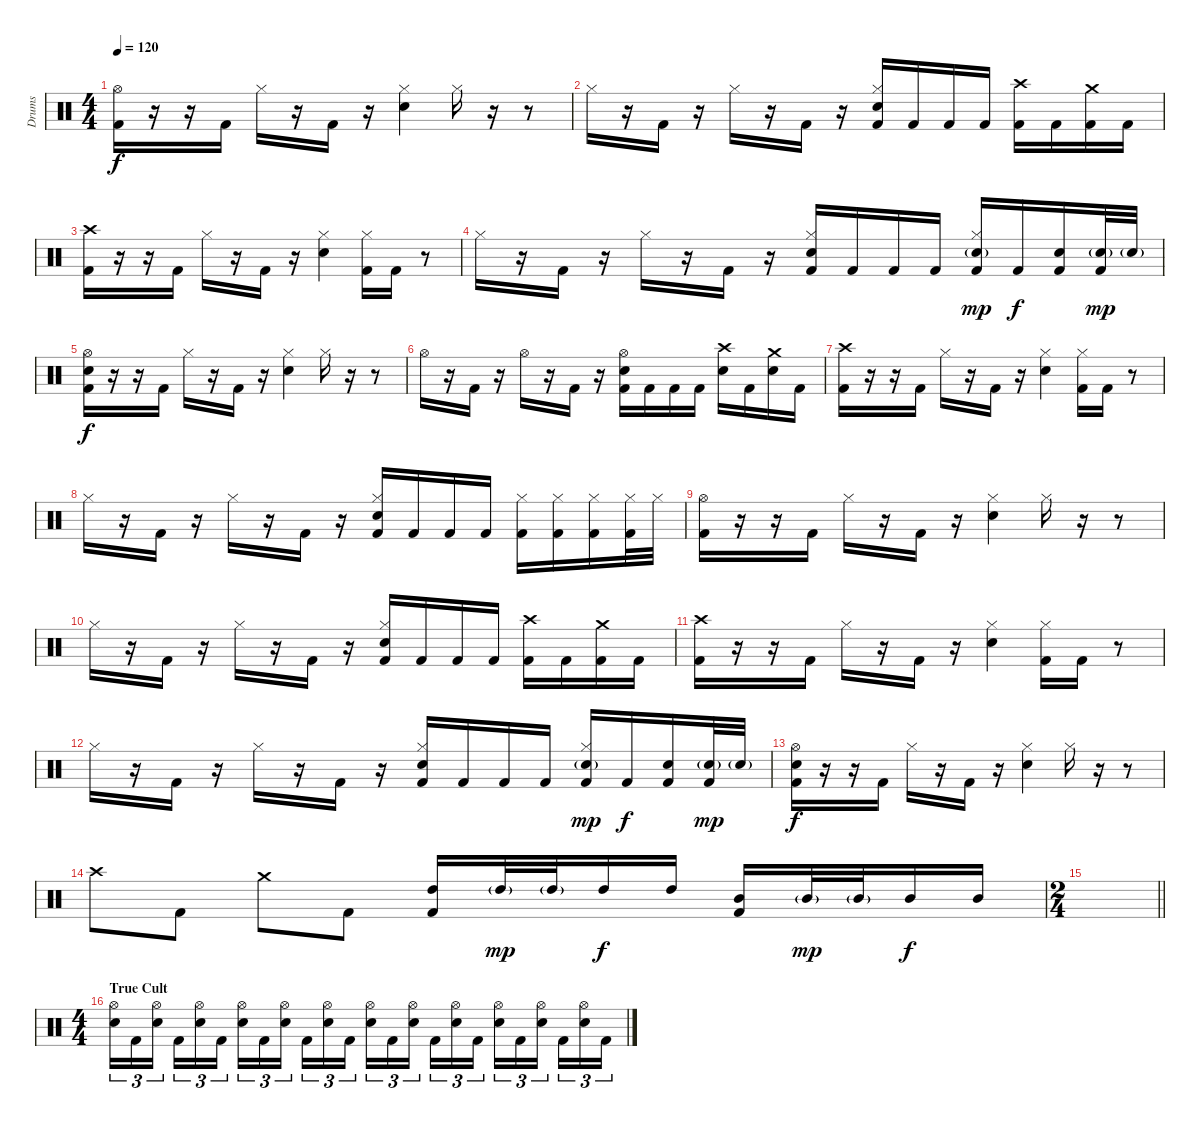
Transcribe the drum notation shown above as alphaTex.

\track ("Drums" "Drums") {instrument percussion}
\staff {score}
\articulation defaults
\ts (4 4)
\tempo 120
\clef neutral
\ks c
("Hi-Hat (open)" "Kick (hit) 2").16{dy f} r.16 r.16 "Kick (hit) 2".16 "Hi-Hat (closed)".16 r.16 "Kick (hit) 2".16 r.16 ("Hi-Hat (closed)" "Snare (hit) 2").4 "Hi-Hat (closed)".16 r.16 r.8 |
"Hi-Hat (closed)".16 r.16 "Kick (hit) 2".16 r.16 "Hi-Hat (closed)".16 r.16 "Kick (hit) 2".16 r.16 ("Hi-Hat (closed)" "Snare (hit) 2" "Kick (hit) 2").16 "Kick (hit) 2".16 "Kick (hit) 2".16 "Kick (hit) 2".16 ("Crash high (hit)" "Kick (hit) 2").16 "Kick (hit) 2".16 ("Crash medium (hit)" "Kick (hit) 2").16 "Kick (hit) 2".16 |
("Crash high (hit)" "Kick (hit) 2").16 r.16 r.16 "Kick (hit) 2".16 "Hi-Hat (closed)".16 r.16 "Kick (hit) 2".16 r.16 ("Hi-Hat (closed)" "Snare (hit) 2").4 ("Hi-Hat (closed)" "Kick (hit) 2").16 "Kick (hit) 2".16 r.8 |
"Hi-Hat (closed)".16 r.16 "Kick (hit) 2".16 r.16 "Hi-Hat (closed)".16 r.16 "Kick (hit) 2".16 r.16 ("Hi-Hat (closed)" "Snare (hit) 2" "Kick (hit) 2").16 "Kick (hit) 2".16 "Kick (hit) 2".16 "Kick (hit) 2".16 ("Hi-Hat (closed)" "Snare (hit) 2"{g} "Kick (hit) 2").16{dy mp} "Kick (hit) 2".16{dy f} ("Snare (hit) 2" "Kick (hit) 2").16 ("Snare (hit) 2"{g} "Kick (hit) 2").32{dy mp} "Snare (hit) 2"{g}.32 |
("Hi-Hat (open)" "Snare (hit) 2" "Kick (hit) 2").16{dy f} r.16 r.16 "Kick (hit) 2".16 "Hi-Hat (closed)".16 r.16 "Kick (hit) 2".16 r.16 ("Hi-Hat (closed)" "Snare (hit) 2").4 "Hi-Hat (closed)".16 r.16 r.8 |
"Hi-Hat (open)".16 r.16 "Kick (hit) 2".16 r.16 "Hi-Hat (open)".16 r.16 "Kick (hit) 2".16 r.16 ("Hi-Hat (open)" "Snare (hit) 2" "Kick (hit) 2").16 "Kick (hit) 2".16 "Kick (hit) 2".16 "Kick (hit) 2".16 ("Crash high (hit)" "Snare (hit) 2").16 "Kick (hit) 2".16 ("Crash medium (hit)" "Snare (hit) 2").16 "Kick (hit) 2".16 |
("Crash high (hit)" "Kick (hit) 2").16 r.16 r.16 "Kick (hit) 2".16 "Hi-Hat (closed)".16 r.16 "Kick (hit) 2".16 r.16 ("Hi-Hat (closed)" "Snare (hit) 2").4 ("Hi-Hat (closed)" "Kick (hit) 2").16 "Kick (hit) 2".16 r.8 |
"Hi-Hat (closed)".16 r.16 "Kick (hit) 2".16 r.16 "Hi-Hat (closed)".16 r.16 "Kick (hit) 2".16 r.16 ("Hi-Hat (closed)" "Snare (hit) 2" "Kick (hit) 2").16 "Kick (hit) 2".16 "Kick (hit) 2".16 "Kick (hit) 2".16 ("Hi-Hat (closed)" "Kick (hit) 2").16 ("Hi-Hat (closed)" "Kick (hit) 2").16 ("Hi-Hat (closed)" "Kick (hit) 2").16 ("Hi-Hat (closed)" "Kick (hit) 2").32 "Hi-Hat (closed)".32 |
("Hi-Hat (open)" "Kick (hit) 2").16 r.16 r.16 "Kick (hit) 2".16 "Hi-Hat (closed)".16 r.16 "Kick (hit) 2".16 r.16 ("Hi-Hat (closed)" "Snare (hit) 2").4 "Hi-Hat (closed)".16 r.16 r.8 |
"Hi-Hat (closed)".16 r.16 "Kick (hit) 2".16 r.16 "Hi-Hat (closed)".16 r.16 "Kick (hit) 2".16 r.16 ("Hi-Hat (closed)" "Snare (hit) 2" "Kick (hit) 2").16 "Kick (hit) 2".16 "Kick (hit) 2".16 "Kick (hit) 2".16 ("Crash high (hit)" "Kick (hit) 2").16 "Kick (hit) 2".16 ("Crash medium (hit)" "Kick (hit) 2").16 "Kick (hit) 2".16 |
("Crash high (hit)" "Kick (hit) 2").16 r.16 r.16 "Kick (hit) 2".16 "Hi-Hat (closed)".16 r.16 "Kick (hit) 2".16 r.16 ("Hi-Hat (closed)" "Snare (hit) 2").4 ("Hi-Hat (closed)" "Kick (hit) 2").16 "Kick (hit) 2".16 r.8 |
"Hi-Hat (closed)".16 r.16 "Kick (hit) 2".16 r.16 "Hi-Hat (closed)".16 r.16 "Kick (hit) 2".16 r.16 ("Hi-Hat (closed)" "Snare (hit) 2" "Kick (hit) 2").16 "Kick (hit) 2".16 "Kick (hit) 2".16 "Kick (hit) 2".16 ("Hi-Hat (closed)" "Snare (hit) 2"{g} "Kick (hit) 2").16{dy mp} "Kick (hit) 2".16{dy f} ("Snare (hit) 2" "Kick (hit) 2").16 ("Snare (hit) 2"{g} "Kick (hit) 2").32{dy mp} "Snare (hit) 2"{g}.32 |
("Hi-Hat (open)" "Snare (hit) 2" "Kick (hit) 2").16{dy f} r.16 r.16 "Kick (hit) 2".16 "Hi-Hat (closed)".16 r.16 "Kick (hit) 2".16 r.16 ("Hi-Hat (closed)" "Snare (hit) 2").4 "Hi-Hat (closed)".16 r.16 r.8 |
"Crash high (hit)".8 "Kick (hit) 2".8 "Crash medium (hit)".8 "Kick (hit) 2".8 ("High Tom (hit)" "Kick (hit) 2").16 "High Tom (hit)"{g}.32{dy mp} "High Tom (hit)"{g}.32 "High Tom (hit)".16{dy f} "High Tom (hit)".16 ("Mid Tom (hit)" "Kick (hit) 2").16 "Mid Tom (hit)"{g}.32{dy mp} "Mid Tom (hit)"{g}.32 "Mid Tom (hit)".16{dy f} "Mid Tom (hit)".16 |
\ts (2 4)
\barLineRight lightlight
|
\ts (4 4)
\section ("" "True Cult")
("Hi-Hat (open)" "Snare (hit) 2").16{tu (3 2)} "Kick (hit) 2".16{tu (3 2)} ("Hi-Hat (open)" "Snare (hit) 2").16{tu (3 2) beam splitsecondary} "Kick (hit) 2".16{tu (3 2)} ("Hi-Hat (open)" "Snare (hit) 2").16{tu (3 2)} "Kick (hit) 2".16{tu (3 2)} ("Hi-Hat (open)" "Snare (hit) 2").16{tu (3 2)} "Kick (hit) 2".16{tu (3 2)} ("Hi-Hat (open)" "Snare (hit) 2").16{tu (3 2) beam splitsecondary} "Kick (hit) 2".16{tu (3 2)} ("Hi-Hat (open)" "Snare (hit) 2").16{tu (3 2)} "Kick (hit) 2".16{tu (3 2)} ("Hi-Hat (open)" "Snare (hit) 2").16{tu (3 2)} "Kick (hit) 2".16{tu (3 2)} ("Hi-Hat (open)" "Snare (hit) 2").16{tu (3 2) beam splitsecondary} "Kick (hit) 2".16{tu (3 2)} ("Hi-Hat (open)" "Snare (hit) 2").16{tu (3 2)} "Kick (hit) 2".16{tu (3 2)} ("Hi-Hat (open)" "Snare (hit) 2").16{tu (3 2)} "Kick (hit) 2".16{tu (3 2)} ("Hi-Hat (open)" "Snare (hit) 2").16{tu (3 2) beam splitsecondary} "Kick (hit) 2".16{tu (3 2)} ("Hi-Hat (open)" "Snare (hit) 2").16{tu (3 2)} "Kick (hit) 2".16{tu (3 2)}
